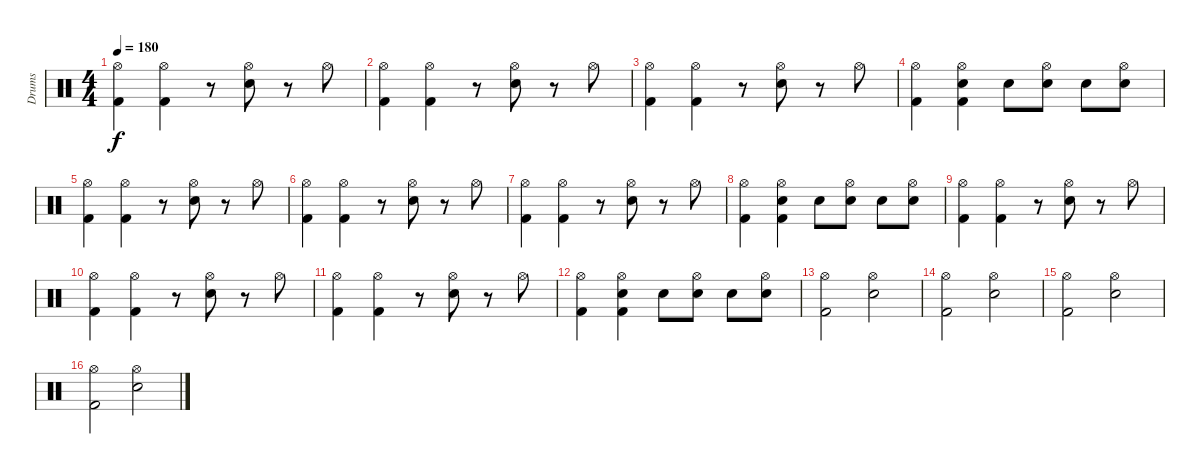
\track ("Drums" "Drums") {instrument percussion}
\staff {score}
\articulation defaults
\ts (4 4)
\tempo 180
\clef neutral
\ks c
("Hi-Hat (open)" "Kick (hit) 2").4{dy f} ("Hi-Hat (open)" "Kick (hit) 2").4 r.8 ("Hi-Hat (open)" "Electric Snare (hit)").8 r.8 "Hi-Hat (open)".8 |
("Hi-Hat (open)" "Kick (hit) 2").4 ("Hi-Hat (open)" "Kick (hit) 2").4 r.8 ("Hi-Hat (open)" "Electric Snare (hit)").8 r.8 "Hi-Hat (open)".8 |
("Hi-Hat (open)" "Kick (hit) 2").4 ("Hi-Hat (open)" "Kick (hit) 2").4 r.8 ("Hi-Hat (open)" "Electric Snare (hit)").8 r.8 "Hi-Hat (open)".8 |
("Hi-Hat (open)" "Kick (hit) 2").4 ("Hi-Hat (open)" "Electric Snare (hit)" "Kick (hit) 2").4 "Electric Snare (hit)".8 ("Hi-Hat (open)" "Electric Snare (hit)").8 "Electric Snare (hit)".8 ("Hi-Hat (open)" "Electric Snare (hit)").8 |
("Hi-Hat (open)" "Kick (hit) 2").4 ("Hi-Hat (open)" "Kick (hit) 2").4 r.8 ("Hi-Hat (open)" "Electric Snare (hit)").8 r.8 "Hi-Hat (open)".8 |
("Hi-Hat (open)" "Kick (hit) 2").4 ("Hi-Hat (open)" "Kick (hit) 2").4 r.8 ("Hi-Hat (open)" "Electric Snare (hit)").8 r.8 "Hi-Hat (open)".8 |
("Hi-Hat (open)" "Kick (hit) 2").4 ("Hi-Hat (open)" "Kick (hit) 2").4 r.8 ("Hi-Hat (open)" "Electric Snare (hit)").8 r.8 "Hi-Hat (open)".8 |
("Hi-Hat (open)" "Kick (hit) 2").4 ("Hi-Hat (open)" "Electric Snare (hit)" "Kick (hit) 2").4 "Electric Snare (hit)".8 ("Hi-Hat (open)" "Electric Snare (hit)").8 "Electric Snare (hit)".8 ("Hi-Hat (open)" "Electric Snare (hit)").8 |
("Hi-Hat (open)" "Kick (hit) 2").4 ("Hi-Hat (open)" "Kick (hit) 2").4 r.8 ("Hi-Hat (open)" "Electric Snare (hit)").8 r.8 "Hi-Hat (open)".8 |
("Hi-Hat (open)" "Kick (hit) 2").4 ("Hi-Hat (open)" "Kick (hit) 2").4 r.8 ("Hi-Hat (open)" "Electric Snare (hit)").8 r.8 "Hi-Hat (open)".8 |
("Hi-Hat (open)" "Kick (hit) 2").4 ("Hi-Hat (open)" "Kick (hit) 2").4 r.8 ("Hi-Hat (open)" "Electric Snare (hit)").8 r.8 "Hi-Hat (open)".8 |
("Hi-Hat (open)" "Kick (hit) 2").4 ("Hi-Hat (open)" "Electric Snare (hit)" "Kick (hit) 2").4 "Electric Snare (hit)".8 ("Hi-Hat (open)" "Electric Snare (hit)").8 "Electric Snare (hit)".8 ("Hi-Hat (open)" "Electric Snare (hit)").8 |
("Hi-Hat (open)" "Kick (hit) 2").2 ("Hi-Hat (open)" "Electric Snare (hit)").2 |
("Hi-Hat (open)" "Kick (hit) 2").2 ("Hi-Hat (open)" "Electric Snare (hit)").2 |
("Hi-Hat (open)" "Kick (hit) 2").2 ("Hi-Hat (open)" "Electric Snare (hit)").2 |
("Hi-Hat (open)" "Kick (hit) 2").2 ("Hi-Hat (open)" "Electric Snare (hit)").2
